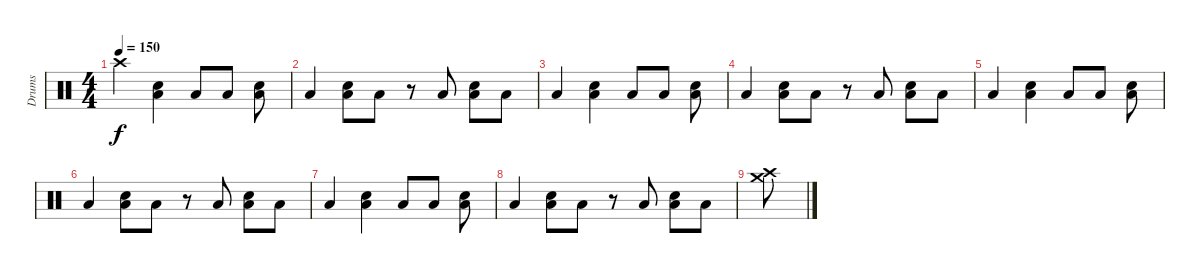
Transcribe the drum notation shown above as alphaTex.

\track ("Drums" "Drums") {instrument percussion}
\staff {score}
\articulation defaults
\ts (4 4)
\tempo 150
\clef neutral
\ks c "Crash high (hit)".4{dy f}
("Low Floor Tom (hit)" "Electric Snare (hit)").4 "Low Floor Tom (hit)".8 "Low Floor Tom (hit)".8 ("Low Floor Tom (hit)" "Electric Snare (hit)").8 |
"Low Floor Tom (hit)".4 ("Low Floor Tom (hit)" "Electric Snare (hit)").8 "Low Floor Tom (hit)".8 r.8 "Low Floor Tom (hit)".8 ("Low Floor Tom (hit)" "Electric Snare (hit)").8 "Low Floor Tom (hit)".8 |
"Low Floor Tom (hit)".4 ("Low Floor Tom (hit)" "Electric Snare (hit)").4 "Low Floor Tom (hit)".8 "Low Floor Tom (hit)".8 ("Low Floor Tom (hit)" "Electric Snare (hit)").8 |
"Low Floor Tom (hit)".4 ("Low Floor Tom (hit)" "Electric Snare (hit)").8 "Low Floor Tom (hit)".8 r.8 "Low Floor Tom (hit)".8 ("Low Floor Tom (hit)" "Electric Snare (hit)").8 "Low Floor Tom (hit)".8 |
"Low Floor Tom (hit)".4 ("Low Floor Tom (hit)" "Electric Snare (hit)").4 "Low Floor Tom (hit)".8 "Low Floor Tom (hit)".8 ("Low Floor Tom (hit)" "Electric Snare (hit)").8 |
"Low Floor Tom (hit)".4 ("Low Floor Tom (hit)" "Electric Snare (hit)").8 "Low Floor Tom (hit)".8 r.8 "Low Floor Tom (hit)".8 ("Low Floor Tom (hit)" "Electric Snare (hit)").8 "Low Floor Tom (hit)".8 |
"Low Floor Tom (hit)".4 ("Low Floor Tom (hit)" "Electric Snare (hit)").4 "Low Floor Tom (hit)".8 "Low Floor Tom (hit)".8 ("Low Floor Tom (hit)" "Electric Snare (hit)").8 |
"Low Floor Tom (hit)".4 ("Low Floor Tom (hit)" "Electric Snare (hit)").8 "Low Floor Tom (hit)".8 r.8 "Low Floor Tom (hit)".8 ("Low Floor Tom (hit)" "Electric Snare (hit)").8 "Low Floor Tom (hit)".8 |
("Crash high (hit)" "Crash medium (hit)").8
